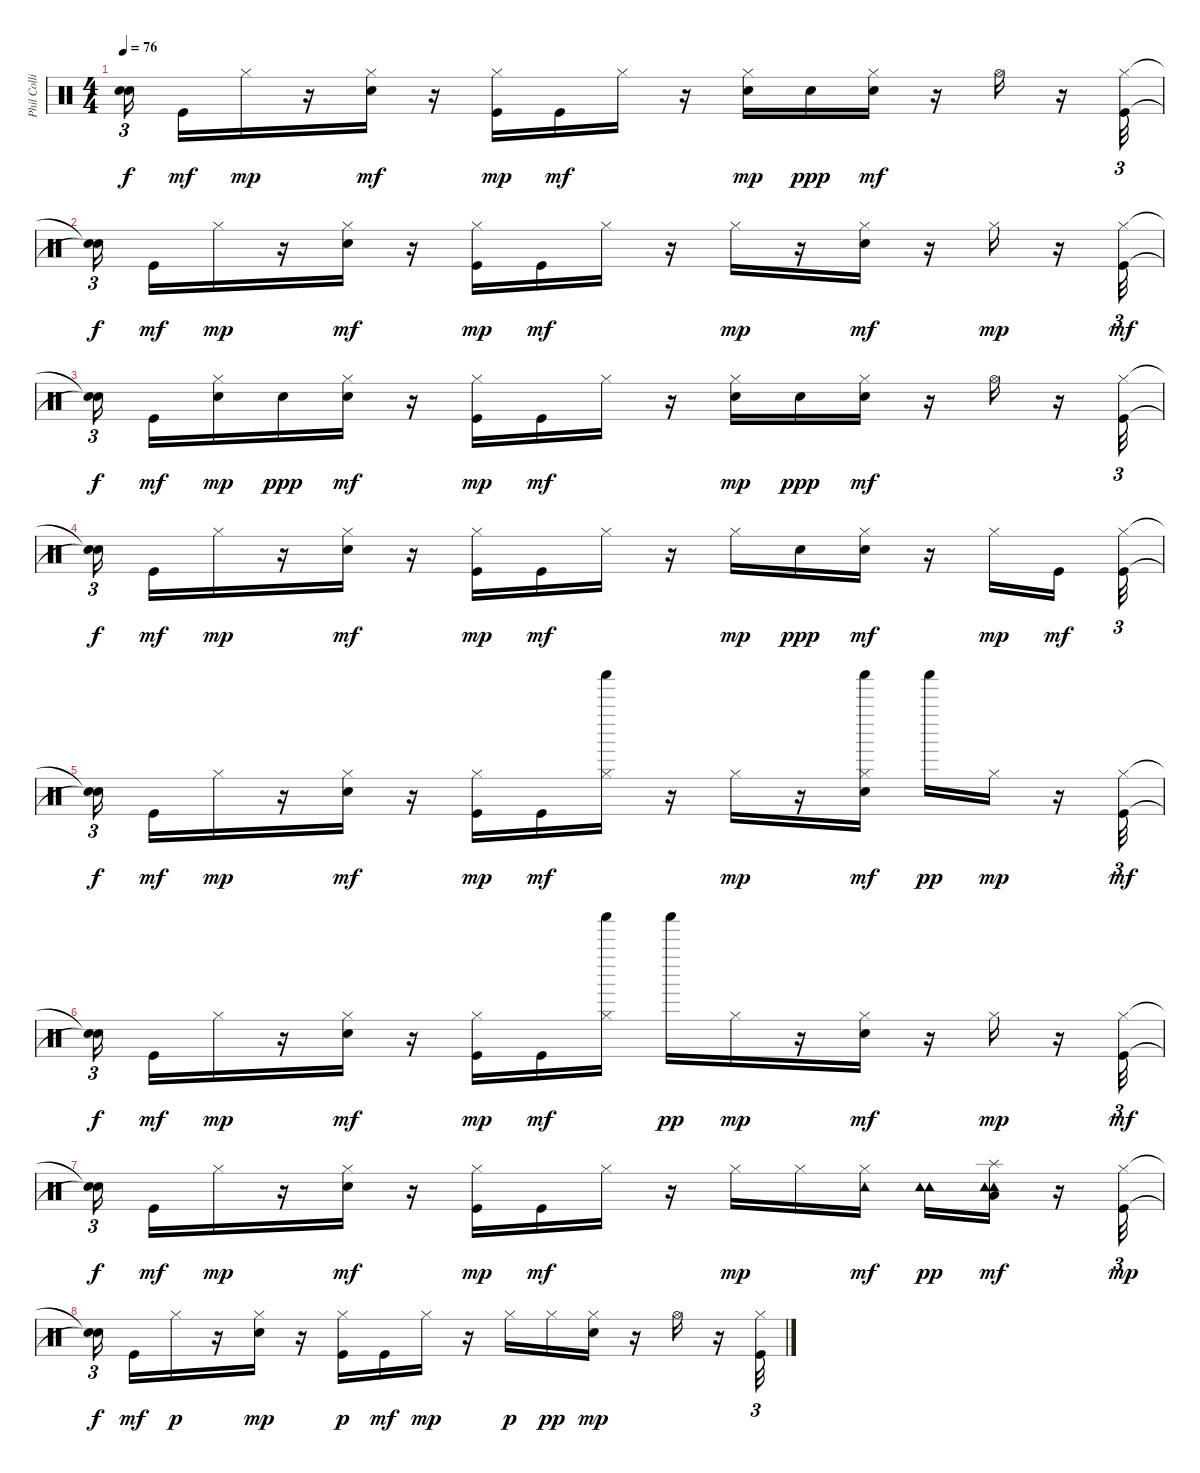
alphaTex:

\track ("Phil Collins" "Phil Colli") {instrument percussion}
\staff {score}
\articulation defaults
\ts (4 4)
\tempo 76
\clef neutral
\ks c
("Snare (hit)"{t} "Snare (hit)"{t}).16{tu (3 2) dy f beam splitsecondary} "Kick (hit)".16{dy mf} "Hi-Hat (closed)".16{dy mp} r.16 ("Snare (hit) 2" "Hi-Hat (closed)").16{dy mf} r.16 ("Kick (hit)" "Hi-Hat (closed)").16{dy mp} "Kick (hit)".16{dy mf} "Hi-Hat (closed)".16 r.16 ("Snare (hit) 2" "Hi-Hat (closed)").16{dy mp} "Snare (hit) 2".16{dy ppp} ("Hi-Hat (closed)" "Snare (hit) 2").16{dy mf} r.16 "Hi-Hat (open)".16 r.16 ("Kick (hit)" "Hi-Hat (closed)").32{tu (3 2)} |
("Snare (hit)"{t} "Snare (hit)"{t}).16{tu (3 2) dy f beam splitsecondary} "Kick (hit)".16{dy mf} "Hi-Hat (closed)".16{dy mp} r.16 ("Snare (hit) 2" "Hi-Hat (closed)").16{dy mf} r.16 ("Kick (hit)" "Hi-Hat (closed)").16{dy mp} "Kick (hit)".16{dy mf} "Hi-Hat (closed)".16 r.16 "Hi-Hat (closed)".16{dy mp} r.16 ("Snare (hit) 2" "Hi-Hat (closed)").16{dy mf} r.16 "Hi-Hat (closed)".16{dy mp} r.16 ("Kick (hit)" "Hi-Hat (closed)").32{tu (3 2) dy mf} |
("Snare (hit)"{t} "Snare (hit)"{t}).16{tu (3 2) dy f beam splitsecondary} "Kick (hit)".16{dy mf} ("Snare (hit) 2" "Hi-Hat (closed)").16{dy mp} "Snare (hit) 2".16{dy ppp} ("Hi-Hat (closed)" "Snare (hit) 2").16{dy mf} r.16 ("Kick (hit)" "Hi-Hat (closed)").16{dy mp} "Kick (hit)".16{dy mf} "Hi-Hat (closed)".16 r.16 ("Snare (hit) 2" "Hi-Hat (closed)").16{dy mp} "Snare (hit) 2".16{dy ppp} ("Hi-Hat (closed)" "Snare (hit) 2").16{dy mf} r.16 "Hi-Hat (open)".16 r.16 ("Kick (hit)" "Hi-Hat (closed)").32{tu (3 2)} |
("Snare (hit)"{t} "Snare (hit)"{t}).16{tu (3 2) dy f beam splitsecondary} "Kick (hit)".16{dy mf} "Hi-Hat (closed)".16{dy mp} r.16 ("Snare (hit) 2" "Hi-Hat (closed)").16{dy mf} r.16 ("Kick (hit)" "Hi-Hat (closed)").16{dy mp} "Kick (hit)".16{dy mf} "Hi-Hat (closed)".16 r.16 "Hi-Hat (closed)".16{dy mp} "Snare (hit) 2".16{dy ppp} ("Hi-Hat (closed)" "Snare (hit) 2").16{dy mf} r.16 "Hi-Hat (closed)".16{dy mp} "Kick (hit)".16{dy mf beam splitsecondary} ("Hi-Hat (closed)" "Kick (hit)").32{tu (3 2)} |
("Snare (hit)"{t} "Snare (hit)"{t}).16{tu (3 2) dy f beam splitsecondary} "Kick (hit)".16{dy mf} "Hi-Hat (closed)".16{dy mp} r.16 ("Snare (hit) 2" "Hi-Hat (closed)").16{dy mf} r.16 ("Kick (hit)" "Hi-Hat (closed)").16{dy mp} "Kick (hit)".16{dy mf} ("Shaker (hit)" "Hi-Hat (closed)").16 r.16 "Hi-Hat (closed)".16{dy mp} r.16 ("Shaker (hit)" "Snare (hit) 2" "Hi-Hat (closed)").16{dy mf} "Shaker (hit)".16{dy pp} "Hi-Hat (closed)".16{dy mp} r.16 ("Kick (hit)" "Hi-Hat (closed)").32{tu (3 2) dy mf} |
("Snare (hit)"{t} "Snare (hit)"{t}).16{tu (3 2) dy f beam splitsecondary} "Kick (hit)".16{dy mf} "Hi-Hat (closed)".16{dy mp} r.16 ("Snare (hit) 2" "Hi-Hat (closed)").16{dy mf} r.16 ("Kick (hit)" "Hi-Hat (closed)").16{dy mp} "Kick (hit)".16{dy mf} ("Shaker (hit)" "Hi-Hat (closed)").16 "Shaker (hit)".16{dy pp} "Hi-Hat (closed)".16{dy mp} r.16 ("Snare (hit) 2" "Hi-Hat (closed)").16{dy mf} r.16 "Hi-Hat (closed)".16{dy mp} r.16 ("Kick (hit)" "Hi-Hat (closed)").32{tu (3 2) dy mf} |
("Snare (hit)"{t} "Snare (hit)"{t}).16{tu (3 2) dy f beam splitsecondary} "Kick (hit)".16{dy mf} "Hi-Hat (closed)".16{dy mp} r.16 ("Snare (hit) 2" "Hi-Hat (closed)").16{dy mf} r.16 ("Kick (hit)" "Hi-Hat (closed)").16{dy mp} "Kick (hit)".16{dy mf} "Hi-Hat (closed)".16 r.16 "Hi-Hat (closed)".16{dy mp} "Hi-Hat (closed)".16 ("Tambourine (hit)" "Hi-Hat (closed)").16{dy mf} ("Tambourine (hit)" "Tambourine (hit)").16{dy pp} ("Tambourine (hit)" "Splash (hit)" "Low Tom (hit)" "Tambourine (hit)").16{dy mf} r.16 ("Kick (hit)" "Hi-Hat (closed)").32{tu (3 2) dy mp} |
("Snare (hit)"{t} "Snare (hit)"{t}).16{tu (3 2) dy f beam splitsecondary} "Kick (hit)".16{dy mf} "Hi-Hat (closed)".16{dy p} r.16 ("Snare (hit) 2" "Hi-Hat (closed)").16{dy mp} r.16 ("Kick (hit)" "Hi-Hat (closed)").16{dy p} "Kick (hit)".16{dy mf} "Hi-Hat (closed)".16{dy mp} r.16 "Hi-Hat (closed)".16{dy p} "Hi-Hat (closed)".16{dy pp} ("Snare (hit) 2" "Hi-Hat (closed)").16{dy mp} r.16 "Hi-Hat (open)".16 r.16 ("Kick (hit)" "Hi-Hat (closed)").32{tu (3 2)}
